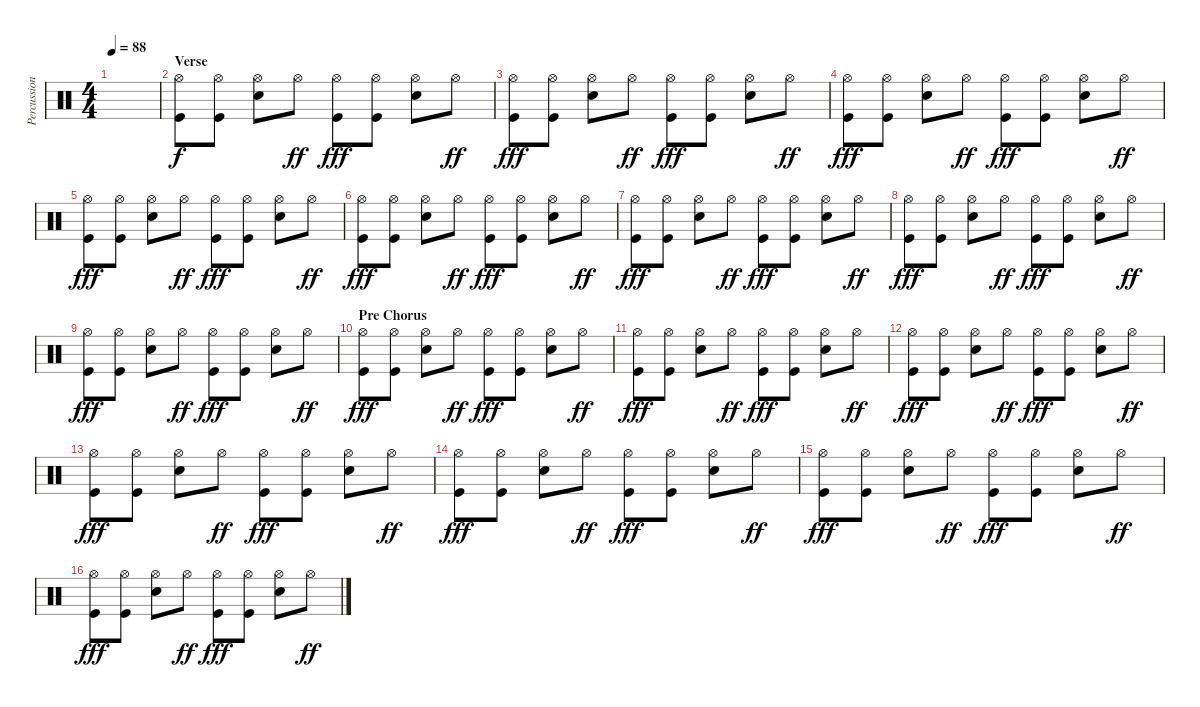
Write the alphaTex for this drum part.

\track ("Percussions" "Percussion") {instrument percussion}
\staff {score}
\articulation defaults
\ts (4 4)
\tempo 88
\clef neutral
\ks c
|
\section ("" "Verse")
("Hi-Hat (open)" "Kick (hit)").8 ("Hi-Hat (open)" "Kick (hit)").8 ("Hi-Hat (open)" "Snare (hit) 2").8 "Hi-Hat (open)".8{dy ff} ("Hi-Hat (open)" "Kick (hit)").8{dy fff} ("Hi-Hat (open)" "Kick (hit)").8 ("Hi-Hat (open)" "Snare (hit) 2").8 "Hi-Hat (open)".8{dy ff} |
("Hi-Hat (open)" "Kick (hit)").8{dy fff} ("Hi-Hat (open)" "Kick (hit)").8 ("Hi-Hat (open)" "Snare (hit) 2").8 "Hi-Hat (open)".8{dy ff} ("Hi-Hat (open)" "Kick (hit)").8{dy fff} ("Hi-Hat (open)" "Kick (hit)").8 ("Hi-Hat (open)" "Snare (hit) 2").8 "Hi-Hat (open)".8{dy ff} |
("Hi-Hat (open)" "Kick (hit)").8{dy fff} ("Hi-Hat (open)" "Kick (hit)").8 ("Hi-Hat (open)" "Snare (hit) 2").8 "Hi-Hat (open)".8{dy ff} ("Hi-Hat (open)" "Kick (hit)").8{dy fff} ("Hi-Hat (open)" "Kick (hit)").8 ("Hi-Hat (open)" "Snare (hit) 2").8 "Hi-Hat (open)".8{dy ff} |
("Hi-Hat (open)" "Kick (hit)").8{dy fff} ("Hi-Hat (open)" "Kick (hit)").8 ("Hi-Hat (open)" "Snare (hit) 2").8 "Hi-Hat (open)".8{dy ff} ("Hi-Hat (open)" "Kick (hit)").8{dy fff} ("Hi-Hat (open)" "Kick (hit)").8 ("Hi-Hat (open)" "Snare (hit) 2").8 "Hi-Hat (open)".8{dy ff} |
("Hi-Hat (open)" "Kick (hit)").8{dy fff} ("Hi-Hat (open)" "Kick (hit)").8 ("Hi-Hat (open)" "Snare (hit) 2").8 "Hi-Hat (open)".8{dy ff} ("Hi-Hat (open)" "Kick (hit)").8{dy fff} ("Hi-Hat (open)" "Kick (hit)").8 ("Hi-Hat (open)" "Snare (hit) 2").8 "Hi-Hat (open)".8{dy ff} |
("Hi-Hat (open)" "Kick (hit)").8{dy fff} ("Hi-Hat (open)" "Kick (hit)").8 ("Hi-Hat (open)" "Snare (hit) 2").8 "Hi-Hat (open)".8{dy ff} ("Hi-Hat (open)" "Kick (hit)").8{dy fff} ("Hi-Hat (open)" "Kick (hit)").8 ("Hi-Hat (open)" "Snare (hit) 2").8 "Hi-Hat (open)".8{dy ff} |
("Hi-Hat (open)" "Kick (hit)").8{dy fff} ("Hi-Hat (open)" "Kick (hit)").8 ("Hi-Hat (open)" "Snare (hit) 2").8 "Hi-Hat (open)".8{dy ff} ("Hi-Hat (open)" "Kick (hit)").8{dy fff} ("Hi-Hat (open)" "Kick (hit)").8 ("Hi-Hat (open)" "Snare (hit) 2").8 "Hi-Hat (open)".8{dy ff} |
("Hi-Hat (open)" "Kick (hit)").8{dy fff} ("Hi-Hat (open)" "Kick (hit)").8 ("Hi-Hat (open)" "Snare (hit) 2").8 "Hi-Hat (open)".8{dy ff} ("Hi-Hat (open)" "Kick (hit)").8{dy fff} ("Hi-Hat (open)" "Kick (hit)").8 ("Hi-Hat (open)" "Snare (hit) 2").8 "Hi-Hat (open)".8{dy ff} |
\section ("" "Pre Chorus")
("Hi-Hat (open)" "Kick (hit)").8{dy fff} ("Hi-Hat (open)" "Kick (hit)").8 ("Hi-Hat (open)" "Snare (hit) 2").8 "Hi-Hat (open)".8{dy ff} ("Hi-Hat (open)" "Kick (hit)").8{dy fff} ("Hi-Hat (open)" "Kick (hit)").8 ("Hi-Hat (open)" "Snare (hit) 2").8 "Hi-Hat (open)".8{dy ff} |
("Hi-Hat (open)" "Kick (hit)").8{dy fff} ("Hi-Hat (open)" "Kick (hit)").8 ("Hi-Hat (open)" "Snare (hit) 2").8 "Hi-Hat (open)".8{dy ff} ("Hi-Hat (open)" "Kick (hit)").8{dy fff} ("Hi-Hat (open)" "Kick (hit)").8 ("Hi-Hat (open)" "Snare (hit) 2").8 "Hi-Hat (open)".8{dy ff} |
("Hi-Hat (open)" "Kick (hit)").8{dy fff} ("Hi-Hat (open)" "Kick (hit)").8 ("Hi-Hat (open)" "Snare (hit) 2").8 "Hi-Hat (open)".8{dy ff} ("Hi-Hat (open)" "Kick (hit)").8{dy fff} ("Hi-Hat (open)" "Kick (hit)").8 ("Hi-Hat (open)" "Snare (hit) 2").8 "Hi-Hat (open)".8{dy ff} |
("Hi-Hat (open)" "Kick (hit)").8{dy fff} ("Hi-Hat (open)" "Kick (hit)").8 ("Hi-Hat (open)" "Snare (hit) 2").8 "Hi-Hat (open)".8{dy ff} ("Hi-Hat (open)" "Kick (hit)").8{dy fff} ("Hi-Hat (open)" "Kick (hit)").8 ("Hi-Hat (open)" "Snare (hit) 2").8 "Hi-Hat (open)".8{dy ff} |
("Hi-Hat (open)" "Kick (hit)").8{dy fff} ("Hi-Hat (open)" "Kick (hit)").8 ("Hi-Hat (open)" "Snare (hit) 2").8 "Hi-Hat (open)".8{dy ff} ("Hi-Hat (open)" "Kick (hit)").8{dy fff} ("Hi-Hat (open)" "Kick (hit)").8 ("Hi-Hat (open)" "Snare (hit) 2").8 "Hi-Hat (open)".8{dy ff} |
("Hi-Hat (open)" "Kick (hit)").8{dy fff} ("Hi-Hat (open)" "Kick (hit)").8 ("Hi-Hat (open)" "Snare (hit) 2").8 "Hi-Hat (open)".8{dy ff} ("Hi-Hat (open)" "Kick (hit)").8{dy fff} ("Hi-Hat (open)" "Kick (hit)").8 ("Hi-Hat (open)" "Snare (hit) 2").8 "Hi-Hat (open)".8{dy ff} |
("Hi-Hat (open)" "Kick (hit)").8{dy fff} ("Hi-Hat (open)" "Kick (hit)").8 ("Hi-Hat (open)" "Snare (hit) 2").8 "Hi-Hat (open)".8{dy ff} ("Hi-Hat (open)" "Kick (hit)").8{dy fff} ("Hi-Hat (open)" "Kick (hit)").8 ("Hi-Hat (open)" "Snare (hit) 2").8 "Hi-Hat (open)".8{dy ff}
